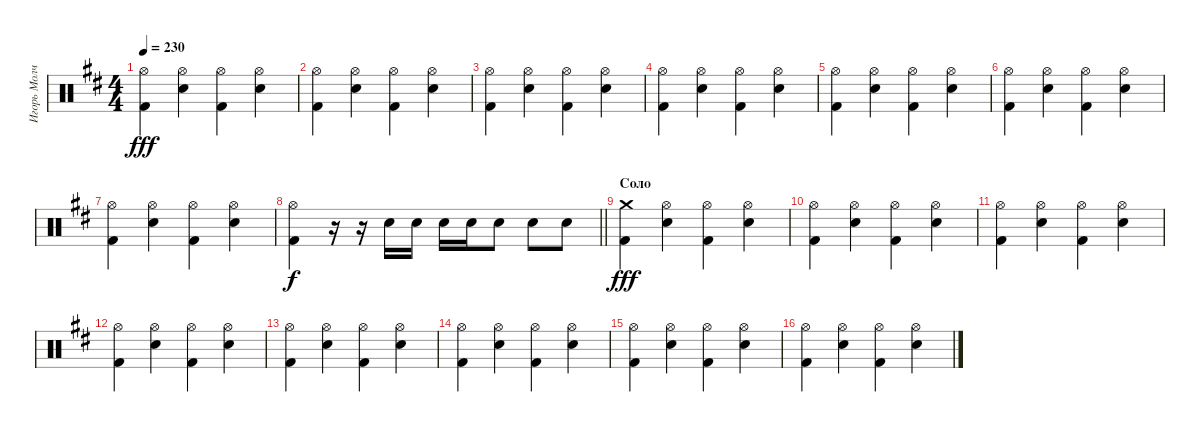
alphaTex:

\track ("Игорь Молчанов" "Игорь Молч") {instrument percussion}
\staff {score}
\articulation defaults
\ts (4 4)
\tempo 230
\clef neutral
\ks d
("Hi-Hat (open)" "Kick (hit) 2").4{dy fff} ("Hi-Hat (open)" "Electric Snare (hit)").4 ("Hi-Hat (open)" "Kick (hit) 2").4 ("Hi-Hat (open)" "Electric Snare (hit)").4 |
("Hi-Hat (open)" "Kick (hit) 2").4 ("Hi-Hat (open)" "Electric Snare (hit)").4 ("Hi-Hat (open)" "Kick (hit) 2").4 ("Hi-Hat (open)" "Electric Snare (hit)").4 |
("Hi-Hat (open)" "Kick (hit) 2").4 ("Hi-Hat (open)" "Electric Snare (hit)").4 ("Hi-Hat (open)" "Kick (hit) 2").4 ("Hi-Hat (open)" "Electric Snare (hit)").4 |
("Hi-Hat (open)" "Kick (hit) 2").4 ("Hi-Hat (open)" "Electric Snare (hit)").4 ("Hi-Hat (open)" "Kick (hit) 2").4 ("Hi-Hat (open)" "Electric Snare (hit)").4 |
("Hi-Hat (open)" "Kick (hit) 2").4 ("Hi-Hat (open)" "Electric Snare (hit)").4 ("Hi-Hat (open)" "Kick (hit) 2").4 ("Hi-Hat (open)" "Electric Snare (hit)").4 |
("Hi-Hat (open)" "Kick (hit) 2").4 ("Hi-Hat (open)" "Electric Snare (hit)").4 ("Hi-Hat (open)" "Kick (hit) 2").4 ("Hi-Hat (open)" "Electric Snare (hit)").4 |
("Hi-Hat (open)" "Kick (hit) 2").4 ("Hi-Hat (open)" "Electric Snare (hit)").4 ("Hi-Hat (open)" "Kick (hit) 2").4 ("Hi-Hat (open)" "Electric Snare (hit)").4 |
\barLineRight lightlight
("Hi-Hat (open)" "Kick (hit) 2").4{dy f} r.16 r.16 "Electric Snare (hit)".16 "Electric Snare (hit)".16 "Electric Snare (hit)".16 "Electric Snare (hit)".16 "Electric Snare (hit)".8 "Electric Snare (hit)".8 "Electric Snare (hit)".8 |
\section ("" "Соло")
("Crash medium (hit)" "Kick (hit) 2").4{dy fff} ("Hi-Hat (open)" "Electric Snare (hit)").4 ("Hi-Hat (open)" "Kick (hit) 2").4 ("Hi-Hat (open)" "Electric Snare (hit)").4 |
("Hi-Hat (open)" "Kick (hit) 2").4 ("Hi-Hat (open)" "Electric Snare (hit)").4 ("Hi-Hat (open)" "Kick (hit) 2").4 ("Hi-Hat (open)" "Electric Snare (hit)").4 |
("Hi-Hat (open)" "Kick (hit) 2").4 ("Hi-Hat (open)" "Electric Snare (hit)").4 ("Hi-Hat (open)" "Kick (hit) 2").4 ("Hi-Hat (open)" "Electric Snare (hit)").4 |
("Hi-Hat (open)" "Kick (hit) 2").4 ("Hi-Hat (open)" "Electric Snare (hit)").4 ("Hi-Hat (open)" "Kick (hit) 2").4 ("Hi-Hat (open)" "Electric Snare (hit)").4 |
("Hi-Hat (open)" "Kick (hit) 2").4 ("Hi-Hat (open)" "Electric Snare (hit)").4 ("Hi-Hat (open)" "Kick (hit) 2").4 ("Hi-Hat (open)" "Electric Snare (hit)").4 |
("Hi-Hat (open)" "Kick (hit) 2").4 ("Hi-Hat (open)" "Electric Snare (hit)").4 ("Hi-Hat (open)" "Kick (hit) 2").4 ("Hi-Hat (open)" "Electric Snare (hit)").4 |
("Hi-Hat (open)" "Kick (hit) 2").4 ("Hi-Hat (open)" "Electric Snare (hit)").4 ("Hi-Hat (open)" "Kick (hit) 2").4 ("Hi-Hat (open)" "Electric Snare (hit)").4 |
("Hi-Hat (open)" "Kick (hit) 2").4 ("Hi-Hat (open)" "Electric Snare (hit)").4 ("Hi-Hat (open)" "Kick (hit) 2").4 ("Hi-Hat (open)" "Electric Snare (hit)").4
